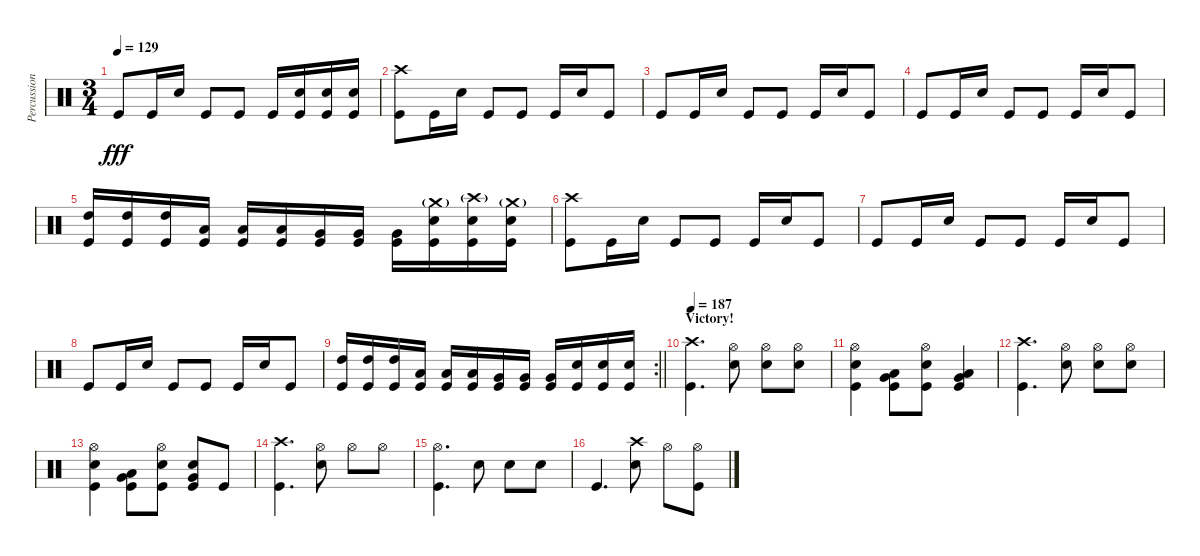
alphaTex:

\track ("Percussion" "Percussion") {instrument percussion}
\staff {score}
\articulation defaults
\ts (3 4)
\tempo 129
\clef neutral
\ks c "Kick (hit)".8{dy fff} "Kick (hit)".16 "Snare (hit) 2".16 "Kick (hit)".8 "Kick (hit)".8 "Kick (hit)".16
("Snare (hit) 2" "Kick (hit)").16 ("Snare (hit) 2" "Kick (hit)").16 ("Snare (hit) 2" "Kick (hit)").16 |
("Crash high (hit)" "Kick (hit)").8 "Kick (hit)".16 "Snare (hit) 2".16 "Kick (hit)".8 "Kick (hit)".8 "Kick (hit)".16 "Snare (hit) 2".16 "Kick (hit)".8 |
"Kick (hit)".8 "Kick (hit)".16 "Snare (hit) 2".16 "Kick (hit)".8 "Kick (hit)".8 "Kick (hit)".16 "Snare (hit) 2".16 "Kick (hit)".8 |
"Kick (hit)".8 "Kick (hit)".16 "Snare (hit) 2".16 "Kick (hit)".8 "Kick (hit)".8 "Kick (hit)".16 "Snare (hit) 2".16 "Kick (hit)".8 |
("High Tom (hit)" "Kick (hit)").16 ("High Tom (hit)" "Kick (hit)").16 ("High Tom (hit)" "Kick (hit)").16 ("Low Tom (hit)" "Kick (hit)").16 ("Low Tom (hit)" "Kick (hit)").16 ("Low Tom (hit)" "Kick (hit)").16 ("Very Low Tom (hit)" "Kick (hit)").16 ("Very Low Tom (hit)" "Kick (hit)").16 ("Very Low Tom (hit)" "Kick (hit)").16 ("Snare (hit) 2" "Crash medium (hit)"{g} "Kick (hit)").16 ("Snare (hit) 2" "Crash high (hit)"{g} "Kick (hit)").16 ("Snare (hit) 2" "Crash medium (hit)"{g} "Kick (hit)").16 |
("Crash high (hit)" "Kick (hit)").8 "Kick (hit)".16 "Snare (hit) 2".16 "Kick (hit)".8 "Kick (hit)".8 "Kick (hit)".16 "Snare (hit) 2".16 "Kick (hit)".8 |
"Kick (hit)".8 "Kick (hit)".16 "Snare (hit) 2".16 "Kick (hit)".8 "Kick (hit)".8 "Kick (hit)".16 "Snare (hit) 2".16 "Kick (hit)".8 |
"Kick (hit)".8 "Kick (hit)".16 "Snare (hit) 2".16 "Kick (hit)".8 "Kick (hit)".8 "Kick (hit)".16 "Snare (hit) 2".16 "Kick (hit)".8 |
\rc 2
\barLineRight lightlight
("High Tom (hit)" "Kick (hit)").16 ("High Tom (hit)" "Kick (hit)").16 ("High Tom (hit)" "Kick (hit)").16 ("Low Tom (hit)" "Kick (hit)").16 ("Low Tom (hit)" "Kick (hit)").16 ("Low Tom (hit)" "Kick (hit)").16 ("Very Low Tom (hit)" "Kick (hit)").16 ("Very Low Tom (hit)" "Kick (hit)").16 ("Very Low Tom (hit)" "Kick (hit)").16 ("Snare (hit) 2" "Kick (hit)").16 ("Snare (hit) 2" "Kick (hit)").16 ("Snare (hit) 2" "Kick (hit)").16 |
\section ("" "Victory!")
\tempo 187
("Crash high (hit)" "Kick (hit)").4{d} ("Hi-Hat (open)" "Snare (hit) 2").8 ("Hi-Hat (open)" "Snare (hit) 2").8 ("Hi-Hat (open)" "Snare (hit) 2").8 |
("Hi-Hat (open)" "Snare (hit) 2" "Kick (hit)").4 ("Very Low Tom (hit)" "Low Floor Tom (hit)" "Kick (hit)").8 ("Hi-Hat (open)" "Snare (hit) 2" "Kick (hit)").8 ("Very Low Tom (hit)" "Low Floor Tom (hit)" "Kick (hit)").4 |
("Crash high (hit)" "Kick (hit)").4{d} ("Hi-Hat (open)" "Snare (hit) 2").8 ("Hi-Hat (open)" "Snare (hit) 2").8 ("Hi-Hat (open)" "Snare (hit) 2").8 |
("Hi-Hat (open)" "Snare (hit) 2" "Kick (hit)").4 ("Very Low Tom (hit)" "Low Floor Tom (hit)" "Kick (hit)").8 ("Hi-Hat (open)" "Snare (hit) 2" "Kick (hit)").8 ("Very Low Tom (hit)" "Snare (hit) 2" "Kick (hit)").8 "Kick (hit)".8 |
("Crash high (hit)" "Kick (hit)").4{d} ("Hi-Hat (open)" "Snare (hit) 2").8 "Hi-Hat (open)".8 "Hi-Hat (open)".8 |
("Hi-Hat (open)" "Kick (hit)").4{d} "Snare (hit) 2".8 "Snare (hit) 2".8 "Snare (hit) 2".8 |
"Kick (hit)".4{d} ("Crash high (hit)" "Snare (hit) 2").8 "Hi-Hat (open)".8 ("Hi-Hat (open)" "Kick (hit)").8
